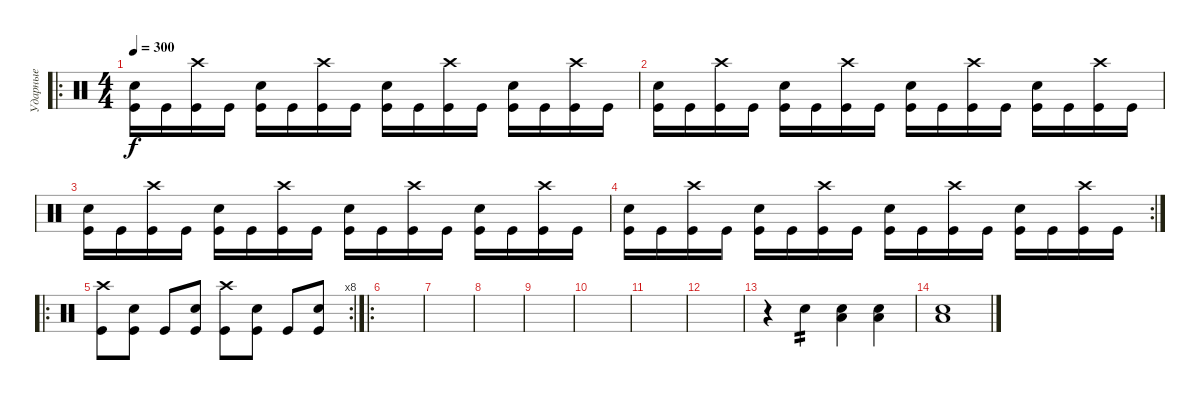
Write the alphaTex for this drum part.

\track ("Ударные" "Ударные") {instrument percussion}
\staff {score}
\articulation defaults
\ro
\ts (4 4)
\tempo 300
\clef neutral
\ks c
("Electric Snare (hit)" "Kick (hit)").16{dy f} "Kick (hit)".16 ("Crash high (hit)" "Kick (hit)").16 "Kick (hit)".16 ("Electric Snare (hit)" "Kick (hit)").16 "Kick (hit)".16 ("Crash high (hit)" "Kick (hit)").16 "Kick (hit)".16 ("Electric Snare (hit)" "Kick (hit)").16 "Kick (hit)".16 ("Crash high (hit)" "Kick (hit)").16 "Kick (hit)".16 ("Electric Snare (hit)" "Kick (hit)").16 "Kick (hit)".16 ("Crash high (hit)" "Kick (hit)").16 "Kick (hit)".16 |
("Electric Snare (hit)" "Kick (hit)").16 "Kick (hit)".16 ("Crash high (hit)" "Kick (hit)").16 "Kick (hit)".16 ("Electric Snare (hit)" "Kick (hit)").16 "Kick (hit)".16 ("Crash high (hit)" "Kick (hit)").16 "Kick (hit)".16 ("Electric Snare (hit)" "Kick (hit)").16 "Kick (hit)".16 ("Crash high (hit)" "Kick (hit)").16 "Kick (hit)".16 ("Electric Snare (hit)" "Kick (hit)").16 "Kick (hit)".16 ("Crash high (hit)" "Kick (hit)").16 "Kick (hit)".16 |
("Electric Snare (hit)" "Kick (hit)").16 "Kick (hit)".16 ("Crash high (hit)" "Kick (hit)").16 "Kick (hit)".16 ("Electric Snare (hit)" "Kick (hit)").16 "Kick (hit)".16 ("Crash high (hit)" "Kick (hit)").16 "Kick (hit)".16 ("Electric Snare (hit)" "Kick (hit)").16 "Kick (hit)".16 ("Crash high (hit)" "Kick (hit)").16 "Kick (hit)".16 ("Electric Snare (hit)" "Kick (hit)").16 "Kick (hit)".16 ("Crash high (hit)" "Kick (hit)").16 "Kick (hit)".16 |
\rc 2
("Electric Snare (hit)" "Kick (hit)").16 "Kick (hit)".16 ("Crash high (hit)" "Kick (hit)").16 "Kick (hit)".16 ("Electric Snare (hit)" "Kick (hit)").16 "Kick (hit)".16 ("Crash high (hit)" "Kick (hit)").16 "Kick (hit)".16 ("Electric Snare (hit)" "Kick (hit)").16 "Kick (hit)".16 ("Crash high (hit)" "Kick (hit)").16 "Kick (hit)".16 ("Electric Snare (hit)" "Kick (hit)").16 "Kick (hit)".16 ("Crash high (hit)" "Kick (hit)").16 "Kick (hit)".16 |
\ro
\rc 8
("Crash high (hit)" "Kick (hit)").8 ("Electric Snare (hit)" "Kick (hit)").8 "Kick (hit)".8 ("Electric Snare (hit)" "Kick (hit)").8 ("Crash high (hit)" "Kick (hit)").8 ("Electric Snare (hit)" "Kick (hit)").8 "Kick (hit)".8 ("Electric Snare (hit)" "Kick (hit)").8 |
\ro
|
|
|
|
|
|
|
r.4 "Electric Snare (hit)".4{tp 2} ("Low Tom (hit)" "Electric Snare (hit)").4 ("Low Tom (hit)" "Electric Snare (hit)").4 |
("Low Tom (hit)" "Electric Snare (hit)").1
